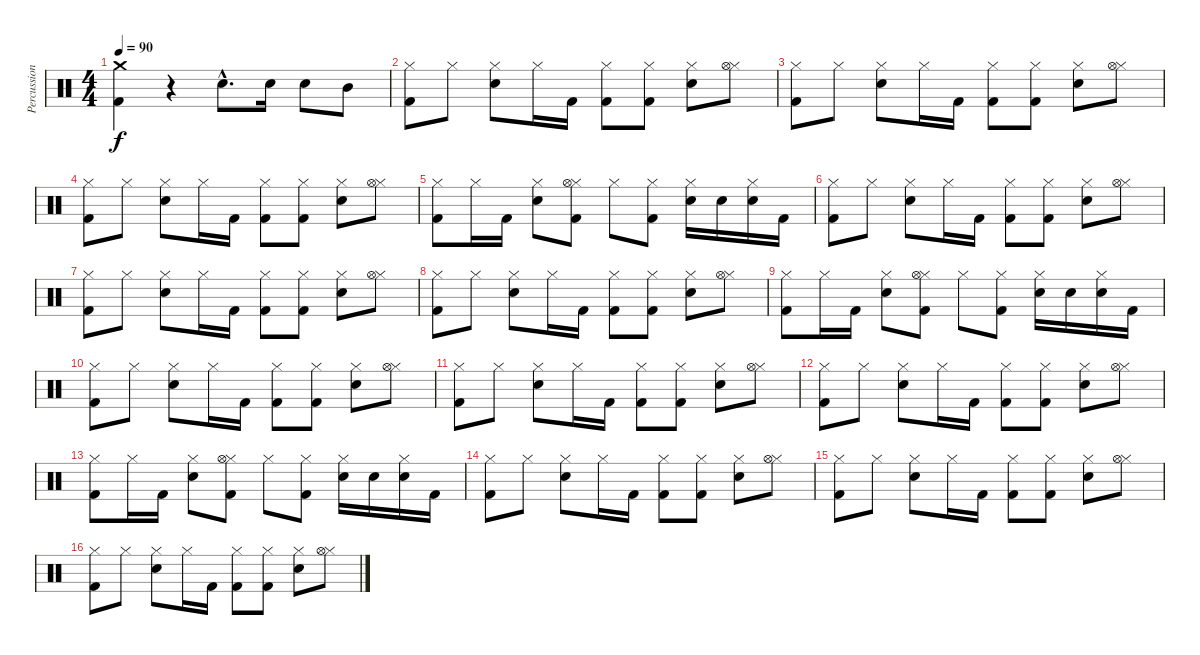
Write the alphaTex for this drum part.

\track ("Percussions" "Percussion") {instrument percussion}
\staff {score}
\articulation defaults
\ts (4 4)
\tempo 90
\clef neutral
\ks c
("Crash medium (hit)" "Kick (hit) 2").4{dy f} r.4 "Electric Snare (hit)"{hac}.8{d} "Electric Snare (hit)".16 "Electric Snare (hit)".8 "Mid Tom (hit)".8 |
("Hi-Hat (closed)" "Kick (hit) 2").8 "Hi-Hat (closed)".8 ("Hi-Hat (closed)" "Electric Snare (hit)").8 "Hi-Hat (closed)".16 "Kick (hit) 2".16 ("Hi-Hat (closed)" "Kick (hit) 2").8 ("Hi-Hat (closed)" "Kick (hit) 2").8 ("Hi-Hat (closed)" "Electric Snare (hit)").8 ("Hi-Hat (closed)" "Hi-Hat (open)").8 |
("Hi-Hat (closed)" "Kick (hit) 2").8 "Hi-Hat (closed)".8 ("Hi-Hat (closed)" "Electric Snare (hit)").8 "Hi-Hat (closed)".16 "Kick (hit) 2".16 ("Hi-Hat (closed)" "Kick (hit) 2").8 ("Hi-Hat (closed)" "Kick (hit) 2").8 ("Hi-Hat (closed)" "Electric Snare (hit)").8 ("Hi-Hat (closed)" "Hi-Hat (open)").8 |
("Hi-Hat (closed)" "Kick (hit) 2").8 "Hi-Hat (closed)".8 ("Hi-Hat (closed)" "Electric Snare (hit)").8 "Hi-Hat (closed)".16 "Kick (hit) 2".16 ("Hi-Hat (closed)" "Kick (hit) 2").8 ("Hi-Hat (closed)" "Kick (hit) 2").8 ("Hi-Hat (closed)" "Electric Snare (hit)").8 ("Hi-Hat (closed)" "Hi-Hat (open)").8 |
("Hi-Hat (closed)" "Kick (hit) 2").8 "Hi-Hat (closed)".16 "Kick (hit) 2".16 ("Hi-Hat (closed)" "Electric Snare (hit)").8 ("Hi-Hat (closed)" "Hi-Hat (open)" "Kick (hit) 2").8 "Hi-Hat (closed)".8 ("Hi-Hat (closed)" "Kick (hit) 2").8 ("Hi-Hat (closed)" "Electric Snare (hit)").16 "Snare (hit)".16 ("Hi-Hat (closed)" "Snare (hit)").16 "Kick (hit) 2".16 |
("Hi-Hat (closed)" "Kick (hit) 2").8 "Hi-Hat (closed)".8 ("Hi-Hat (closed)" "Electric Snare (hit)").8 "Hi-Hat (closed)".16 "Kick (hit) 2".16 ("Hi-Hat (closed)" "Kick (hit) 2").8 ("Hi-Hat (closed)" "Kick (hit) 2").8 ("Hi-Hat (closed)" "Electric Snare (hit)").8 ("Hi-Hat (closed)" "Hi-Hat (open)").8 |
("Hi-Hat (closed)" "Kick (hit) 2").8 "Hi-Hat (closed)".8 ("Hi-Hat (closed)" "Electric Snare (hit)").8 "Hi-Hat (closed)".16 "Kick (hit) 2".16 ("Hi-Hat (closed)" "Kick (hit) 2").8 ("Hi-Hat (closed)" "Kick (hit) 2").8 ("Hi-Hat (closed)" "Electric Snare (hit)").8 ("Hi-Hat (closed)" "Hi-Hat (open)").8 |
("Hi-Hat (closed)" "Kick (hit) 2").8 "Hi-Hat (closed)".8 ("Hi-Hat (closed)" "Electric Snare (hit)").8 "Hi-Hat (closed)".16 "Kick (hit) 2".16 ("Hi-Hat (closed)" "Kick (hit) 2").8 ("Hi-Hat (closed)" "Kick (hit) 2").8 ("Hi-Hat (closed)" "Electric Snare (hit)").8 ("Hi-Hat (closed)" "Hi-Hat (open)").8 |
("Hi-Hat (closed)" "Kick (hit) 2").8 "Hi-Hat (closed)".16 "Kick (hit) 2".16 ("Hi-Hat (closed)" "Electric Snare (hit)").8 ("Hi-Hat (closed)" "Hi-Hat (open)" "Kick (hit) 2").8 "Hi-Hat (closed)".8 ("Hi-Hat (closed)" "Kick (hit) 2").8 ("Hi-Hat (closed)" "Electric Snare (hit)").16 "Snare (hit)".16 ("Hi-Hat (closed)" "Snare (hit)").16 "Kick (hit) 2".16 |
("Hi-Hat (closed)" "Kick (hit) 2").8 "Hi-Hat (closed)".8 ("Hi-Hat (closed)" "Electric Snare (hit)").8 "Hi-Hat (closed)".16 "Kick (hit) 2".16 ("Hi-Hat (closed)" "Kick (hit) 2").8 ("Hi-Hat (closed)" "Kick (hit) 2").8 ("Hi-Hat (closed)" "Electric Snare (hit)").8 ("Hi-Hat (closed)" "Hi-Hat (open)").8 |
("Hi-Hat (closed)" "Kick (hit) 2").8 "Hi-Hat (closed)".8 ("Hi-Hat (closed)" "Electric Snare (hit)").8 "Hi-Hat (closed)".16 "Kick (hit) 2".16 ("Hi-Hat (closed)" "Kick (hit) 2").8 ("Hi-Hat (closed)" "Kick (hit) 2").8 ("Hi-Hat (closed)" "Electric Snare (hit)").8 ("Hi-Hat (closed)" "Hi-Hat (open)").8 |
("Hi-Hat (closed)" "Kick (hit) 2").8 "Hi-Hat (closed)".8 ("Hi-Hat (closed)" "Electric Snare (hit)").8 "Hi-Hat (closed)".16 "Kick (hit) 2".16 ("Hi-Hat (closed)" "Kick (hit) 2").8 ("Hi-Hat (closed)" "Kick (hit) 2").8 ("Hi-Hat (closed)" "Electric Snare (hit)").8 ("Hi-Hat (closed)" "Hi-Hat (open)").8 |
("Hi-Hat (closed)" "Kick (hit) 2").8 "Hi-Hat (closed)".16 "Kick (hit) 2".16 ("Hi-Hat (closed)" "Electric Snare (hit)").8 ("Hi-Hat (closed)" "Hi-Hat (open)" "Kick (hit) 2").8 "Hi-Hat (closed)".8 ("Hi-Hat (closed)" "Kick (hit) 2").8 ("Hi-Hat (closed)" "Electric Snare (hit)").16 "Snare (hit)".16 ("Hi-Hat (closed)" "Snare (hit)").16 "Kick (hit) 2".16 |
("Hi-Hat (closed)" "Kick (hit) 2").8 "Hi-Hat (closed)".8 ("Hi-Hat (closed)" "Electric Snare (hit)").8 "Hi-Hat (closed)".16 "Kick (hit) 2".16 ("Hi-Hat (closed)" "Kick (hit) 2").8 ("Hi-Hat (closed)" "Kick (hit) 2").8 ("Hi-Hat (closed)" "Electric Snare (hit)").8 ("Hi-Hat (closed)" "Hi-Hat (open)").8 |
("Hi-Hat (closed)" "Kick (hit) 2").8 "Hi-Hat (closed)".8 ("Hi-Hat (closed)" "Electric Snare (hit)").8 "Hi-Hat (closed)".16 "Kick (hit) 2".16 ("Hi-Hat (closed)" "Kick (hit) 2").8 ("Hi-Hat (closed)" "Kick (hit) 2").8 ("Hi-Hat (closed)" "Electric Snare (hit)").8 ("Hi-Hat (closed)" "Hi-Hat (open)").8 |
("Hi-Hat (closed)" "Kick (hit) 2").8 "Hi-Hat (closed)".8 ("Hi-Hat (closed)" "Electric Snare (hit)").8 "Hi-Hat (closed)".16 "Kick (hit) 2".16 ("Hi-Hat (closed)" "Kick (hit) 2").8 ("Hi-Hat (closed)" "Kick (hit) 2").8 ("Hi-Hat (closed)" "Electric Snare (hit)").8 ("Hi-Hat (closed)" "Hi-Hat (open)").8
